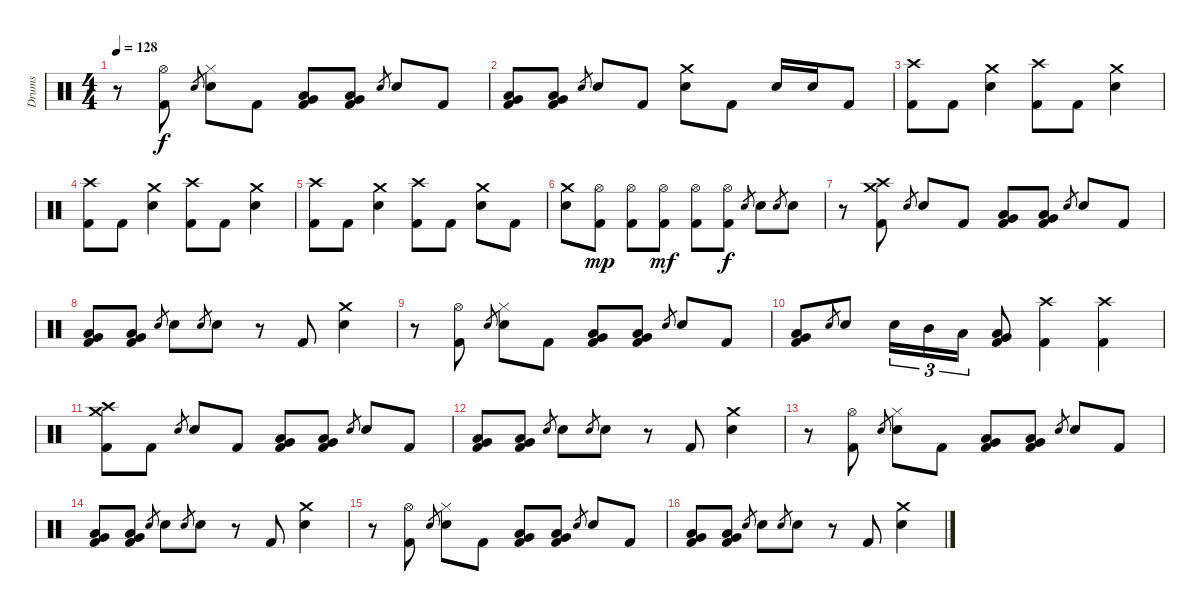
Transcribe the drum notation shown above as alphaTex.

\track ("Drums" "Drums") {instrument percussion}
\staff {score}
\articulation defaults
\ts (4 4)
\tempo 128
\clef neutral
\ks c
r.8{dy f} ("Hi-Hat (open)" "Kick (hit) 2").8 "Electric Snare (hit)".8{gr} ("Hi-Hat (closed)" "Electric Snare (hit)").8 "Kick (hit) 2".8 ("Low Tom (hit)" "Very Low Tom (hit)" "Kick (hit) 2").8 ("Low Tom (hit)" "Very Low Tom (hit)" "Kick (hit) 2").8 "Electric Snare (hit)".8{gr} "Electric Snare (hit)".8 "Kick (hit) 2".8 |
("Low Tom (hit)" "Very Low Tom (hit)" "Kick (hit) 2").8 ("Low Tom (hit)" "Very Low Tom (hit)" "Kick (hit) 2").8 "Electric Snare (hit)".8{gr} "Electric Snare (hit)".8 "Kick (hit) 2".8 ("Crash medium (hit)" "Electric Snare (hit)").8 "Kick (hit) 2".8 "Electric Snare (hit)".16 "Electric Snare (hit)".16 "Kick (hit) 2".8 |
("Crash high (hit)" "Kick (hit) 2").8 "Kick (hit) 2".8 ("Crash medium (hit)" "Electric Snare (hit)").4 ("Crash high (hit)" "Kick (hit) 2").8 "Kick (hit) 2".8 ("Crash medium (hit)" "Electric Snare (hit)").4 |
("Crash high (hit)" "Kick (hit) 2").8 "Kick (hit) 2".8 ("Crash medium (hit)" "Electric Snare (hit)").4 ("Crash high (hit)" "Kick (hit) 2").8 "Kick (hit) 2".8 ("Crash medium (hit)" "Electric Snare (hit)").4 |
("Crash high (hit)" "Kick (hit) 2").8 "Kick (hit) 2".8 ("Crash medium (hit)" "Electric Snare (hit)").4 ("Crash high (hit)" "Kick (hit) 2").8 "Kick (hit) 2".8 ("Crash medium (hit)" "Electric Snare (hit)").8 "Kick (hit) 2".8 |
("Crash medium (hit)" "Electric Snare (hit)").8 ("Hi-Hat (open)" "Kick (hit) 2").8{dy mp} ("Hi-Hat (open)" "Kick (hit) 2").8 ("Hi-Hat (open)" "Kick (hit) 2").8{dy mf} ("Hi-Hat (open)" "Kick (hit) 2").8 ("Hi-Hat (open)" "Kick (hit) 2").8{dy f} "Electric Snare (hit)".8{gr} "Electric Snare (hit)".8 "Electric Snare (hit)".8{gr} "Electric Snare (hit)".8 |
r.8 ("Crash high (hit)" "Crash medium (hit)" "Kick (hit) 2").8 "Electric Snare (hit)".8{gr} "Electric Snare (hit)".8 "Kick (hit) 2".8 ("Low Tom (hit)" "Very Low Tom (hit)" "Kick (hit) 2").8 ("Low Tom (hit)" "Very Low Tom (hit)" "Kick (hit) 2").8 "Electric Snare (hit)".8{gr} "Electric Snare (hit)".8 "Kick (hit) 2".8 |
("Low Tom (hit)" "Very Low Tom (hit)" "Kick (hit) 2").8 ("Low Tom (hit)" "Very Low Tom (hit)" "Kick (hit) 2").8 "Electric Snare (hit)".8{gr} "Electric Snare (hit)".8 "Electric Snare (hit)".8{gr} "Electric Snare (hit)".8 r.8 "Kick (hit) 2".8 ("Crash medium (hit)" "Electric Snare (hit)").4 |
r.8 ("Hi-Hat (open)" "Kick (hit) 2").8 "Electric Snare (hit)".8{gr} ("Hi-Hat (closed)" "Electric Snare (hit)").8 "Kick (hit) 2".8 ("Low Tom (hit)" "Very Low Tom (hit)" "Kick (hit) 2").8 ("Low Tom (hit)" "Very Low Tom (hit)" "Kick (hit) 2").8 "Electric Snare (hit)".8{gr} "Electric Snare (hit)".8 "Kick (hit) 2".8 |
("Low Tom (hit)" "Very Low Tom (hit)" "Kick (hit) 2").8 "Electric Snare (hit)".8{gr} "Electric Snare (hit)".8 "Electric Snare (hit)".16{tu (3 2)} "Mid Tom (hit)".16{tu (3 2)} "Low Tom (hit)".16{tu (3 2)} ("Low Tom (hit)" "Very Low Tom (hit)" "Kick (hit) 2").8 ("Crash high (hit)" "Kick (hit) 2").4 ("Crash high (hit)" "Kick (hit) 2").4 |
("Crash high (hit)" "Crash medium (hit)" "Kick (hit) 2").8 "Kick (hit) 2".8 "Electric Snare (hit)".8{gr} "Electric Snare (hit)".8 "Kick (hit) 2".8 ("Low Tom (hit)" "Very Low Tom (hit)" "Kick (hit) 2").8 ("Low Tom (hit)" "Very Low Tom (hit)" "Kick (hit) 2").8 "Electric Snare (hit)".8{gr} "Electric Snare (hit)".8 "Kick (hit) 2".8 |
("Low Tom (hit)" "Very Low Tom (hit)" "Kick (hit) 2").8 ("Low Tom (hit)" "Very Low Tom (hit)" "Kick (hit) 2").8 "Electric Snare (hit)".8{gr} "Electric Snare (hit)".8 "Electric Snare (hit)".8{gr} "Electric Snare (hit)".8 r.8 "Kick (hit) 2".8 ("Crash medium (hit)" "Electric Snare (hit)").4 |
r.8 ("Hi-Hat (open)" "Kick (hit) 2").8 "Electric Snare (hit)".8{gr} ("Hi-Hat (closed)" "Electric Snare (hit)").8 "Kick (hit) 2".8 ("Low Tom (hit)" "Very Low Tom (hit)" "Kick (hit) 2").8 ("Low Tom (hit)" "Very Low Tom (hit)" "Kick (hit) 2").8 "Electric Snare (hit)".8{gr} "Electric Snare (hit)".8 "Kick (hit) 2".8 |
("Low Tom (hit)" "Very Low Tom (hit)" "Kick (hit) 2").8 ("Low Tom (hit)" "Very Low Tom (hit)" "Kick (hit) 2").8 "Electric Snare (hit)".8{gr} "Electric Snare (hit)".8 "Electric Snare (hit)".8{gr} "Electric Snare (hit)".8 r.8 "Kick (hit) 2".8 ("Crash medium (hit)" "Electric Snare (hit)").4 |
r.8 ("Hi-Hat (open)" "Kick (hit) 2").8 "Electric Snare (hit)".8{gr} ("Hi-Hat (closed)" "Electric Snare (hit)").8 "Kick (hit) 2".8 ("Low Tom (hit)" "Very Low Tom (hit)" "Kick (hit) 2").8 ("Low Tom (hit)" "Very Low Tom (hit)" "Kick (hit) 2").8 "Electric Snare (hit)".8{gr} "Electric Snare (hit)".8 "Kick (hit) 2".8 |
("Low Tom (hit)" "Very Low Tom (hit)" "Kick (hit) 2").8 ("Low Tom (hit)" "Very Low Tom (hit)" "Kick (hit) 2").8 "Electric Snare (hit)".8{gr} "Electric Snare (hit)".8 "Electric Snare (hit)".8{gr} "Electric Snare (hit)".8 r.8 "Kick (hit) 2".8 ("Crash medium (hit)" "Electric Snare (hit)").4
